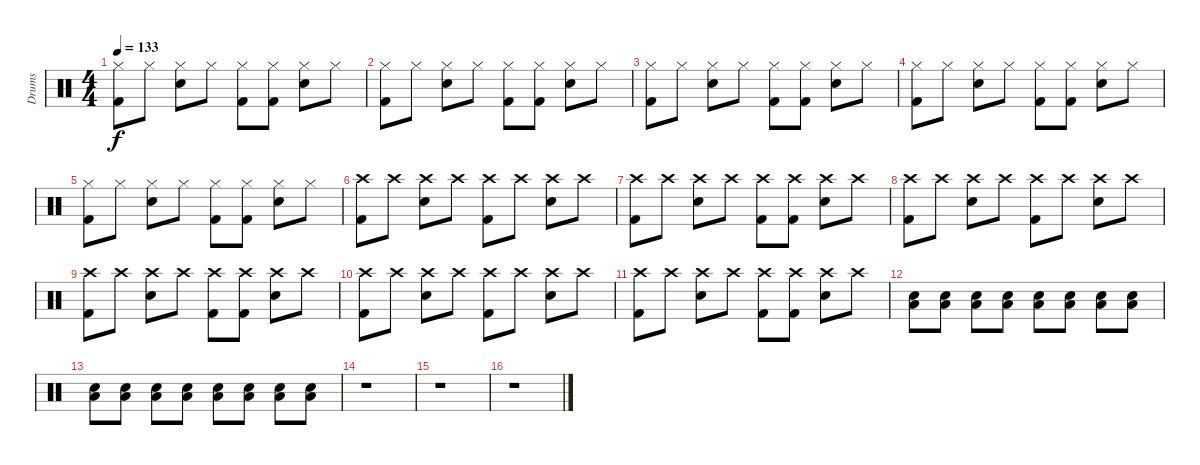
\track ("Drums" "Drums") {instrument percussion}
\staff {score}
\articulation defaults
\ts (4 4)
\tempo 133
\clef neutral
\ks c
("Kick (hit) 2" "Hi-Hat (closed)").8{dy f} "Hi-Hat (closed)".8 ("Snare (hit) 2" "Hi-Hat (closed)").8 "Hi-Hat (closed)".8 ("Kick (hit) 2" "Hi-Hat (closed)").8 ("Kick (hit) 2" "Hi-Hat (closed)").8 ("Snare (hit) 2" "Hi-Hat (closed)").8 "Hi-Hat (closed)".8 |
("Kick (hit) 2" "Hi-Hat (closed)").8 "Hi-Hat (closed)".8 ("Snare (hit) 2" "Hi-Hat (closed)").8 "Hi-Hat (closed)".8 ("Kick (hit) 2" "Hi-Hat (closed)").8 ("Kick (hit) 2" "Hi-Hat (closed)").8 ("Snare (hit) 2" "Hi-Hat (closed)").8 "Hi-Hat (closed)".8 |
("Kick (hit) 2" "Hi-Hat (closed)").8 "Hi-Hat (closed)".8 ("Snare (hit) 2" "Hi-Hat (closed)").8 "Hi-Hat (closed)".8 ("Kick (hit) 2" "Hi-Hat (closed)").8 ("Kick (hit) 2" "Hi-Hat (closed)").8 ("Snare (hit) 2" "Hi-Hat (closed)").8 "Hi-Hat (closed)".8 |
("Kick (hit) 2" "Hi-Hat (closed)").8 "Hi-Hat (closed)".8 ("Snare (hit) 2" "Hi-Hat (closed)").8 "Hi-Hat (closed)".8 ("Kick (hit) 2" "Hi-Hat (closed)").8 ("Kick (hit) 2" "Hi-Hat (closed)").8 ("Snare (hit) 2" "Hi-Hat (closed)").8 "Hi-Hat (closed)".8 |
("Kick (hit) 2" "Hi-Hat (closed)").8 "Hi-Hat (closed)".8 ("Snare (hit) 2" "Hi-Hat (closed)").8 "Hi-Hat (closed)".8 ("Kick (hit) 2" "Hi-Hat (closed)").8 ("Kick (hit) 2" "Hi-Hat (closed)").8 ("Snare (hit) 2" "Hi-Hat (closed)").8 "Hi-Hat (closed)".8 |
("Kick (hit) 2" "Crash high (hit)").8 "Crash high (hit)".8 ("Snare (hit) 2" "Crash high (hit)").8 "Crash high (hit)".8 ("Kick (hit) 2" "Crash high (hit)").8 "Crash high (hit)".8 ("Snare (hit) 2" "Crash high (hit)").8 "Crash high (hit)".8 |
("Kick (hit) 2" "Crash high (hit)").8 "Crash high (hit)".8 ("Snare (hit) 2" "Crash high (hit)").8 "Crash high (hit)".8 ("Kick (hit) 2" "Crash high (hit)").8 ("Kick (hit) 2" "Crash high (hit)").8 ("Snare (hit) 2" "Crash high (hit)").8 "Crash high (hit)".8 |
("Kick (hit) 2" "Crash high (hit)").8 "Crash high (hit)".8 ("Snare (hit) 2" "Crash high (hit)").8 "Crash high (hit)".8 ("Kick (hit) 2" "Crash high (hit)").8 "Crash high (hit)".8 ("Snare (hit) 2" "Crash high (hit)").8 "Crash high (hit)".8 |
("Kick (hit) 2" "Crash high (hit)").8 "Crash high (hit)".8 ("Snare (hit) 2" "Crash high (hit)").8 "Crash high (hit)".8 ("Kick (hit) 2" "Crash high (hit)").8 ("Kick (hit) 2" "Crash high (hit)").8 ("Snare (hit) 2" "Crash high (hit)").8 "Crash high (hit)".8 |
("Kick (hit) 2" "Crash high (hit)").8 "Crash high (hit)".8 ("Snare (hit) 2" "Crash high (hit)").8 "Crash high (hit)".8 ("Kick (hit) 2" "Crash high (hit)").8 "Crash high (hit)".8 ("Snare (hit) 2" "Crash high (hit)").8 "Crash high (hit)".8 |
("Kick (hit) 2" "Crash high (hit)").8 "Crash high (hit)".8 ("Snare (hit) 2" "Crash high (hit)").8 "Crash high (hit)".8 ("Kick (hit) 2" "Crash high (hit)").8 ("Kick (hit) 2" "Crash high (hit)").8 ("Snare (hit) 2" "Crash high (hit)").8 "Crash high (hit)".8 |
("Low Floor Tom (hit)" "Snare (hit) 2").8 ("Low Floor Tom (hit)" "Snare (hit) 2").8 ("Low Floor Tom (hit)" "Snare (hit) 2").8 ("Low Floor Tom (hit)" "Snare (hit) 2").8 ("Low Floor Tom (hit)" "Snare (hit) 2").8 ("Low Floor Tom (hit)" "Snare (hit) 2").8 ("Low Floor Tom (hit)" "Snare (hit) 2").8 ("Low Floor Tom (hit)" "Snare (hit) 2").8 |
("Low Floor Tom (hit)" "Snare (hit) 2").8 ("Low Floor Tom (hit)" "Snare (hit) 2").8 ("Low Floor Tom (hit)" "Snare (hit) 2").8 ("Low Floor Tom (hit)" "Snare (hit) 2").8 ("Low Floor Tom (hit)" "Snare (hit) 2").8 ("Low Floor Tom (hit)" "Snare (hit) 2").8 ("Low Floor Tom (hit)" "Snare (hit) 2").8 ("Low Floor Tom (hit)" "Snare (hit) 2").8 |
r.1 |
r.1 |
r.1
